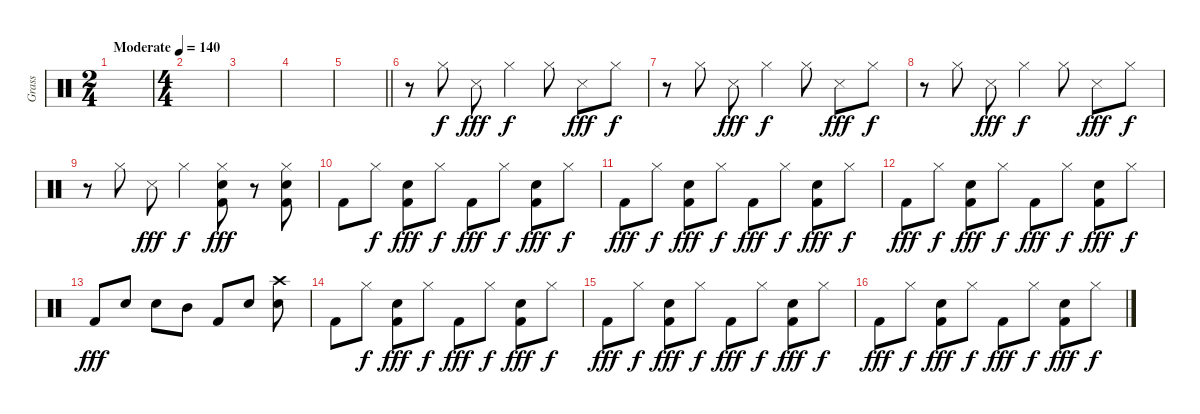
\track ("Grass" "Grass") {instrument percussion}
\staff {score}
\articulation defaults
\ts (2 4)
\tempo (140 "Moderate")
\clef neutral
\ks c
|
\ts (4 4)
|
|
|
\barLineRight lightlight
|
r.8 "Hi-Hat (closed)".8 "Snare (side stick) 3".8{dy fff} "Hi-Hat (closed)".4{dy f} "Hi-Hat (closed)".8 "Snare (side stick) 3".8{dy fff} "Hi-Hat (closed)".8{dy f} |
r.8 "Hi-Hat (closed)".8 "Snare (side stick) 3".8{dy fff} "Hi-Hat (closed)".4{dy f} "Hi-Hat (closed)".8 "Snare (side stick) 3".8{dy fff} "Hi-Hat (closed)".8{dy f} |
r.8 "Hi-Hat (closed)".8 "Snare (side stick) 3".8{dy fff} "Hi-Hat (closed)".4{dy f} "Hi-Hat (closed)".8 "Snare (side stick) 3".8{dy fff} "Hi-Hat (closed)".8{dy f} |
r.8 "Hi-Hat (closed)".8 "Snare (side stick) 3".8{dy fff} "Hi-Hat (closed)".4{dy f} ("Kick (hit) 2" "Electric Snare (hit)" "Hi-Hat (closed)").8{dy fff} r.8 ("Kick (hit) 2" "Electric Snare (hit)" "Hi-Hat (closed)").8 |
"Kick (hit) 2".8 "Hi-Hat (closed)".8{dy f} ("Kick (hit) 2" "Electric Snare (hit)").8{dy fff} "Hi-Hat (closed)".8{dy f} "Kick (hit) 2".8{dy fff} "Hi-Hat (closed)".8{dy f} ("Kick (hit) 2" "Electric Snare (hit)").8{dy fff} "Hi-Hat (closed)".8{dy f} |
"Kick (hit) 2".8{dy fff} "Hi-Hat (closed)".8{dy f} ("Kick (hit) 2" "Electric Snare (hit)").8{dy fff} "Hi-Hat (closed)".8{dy f} "Kick (hit) 2".8{dy fff} "Hi-Hat (closed)".8{dy f} ("Kick (hit) 2" "Electric Snare (hit)").8{dy fff} "Hi-Hat (closed)".8{dy f} |
"Kick (hit) 2".8{dy fff} "Hi-Hat (closed)".8{dy f} ("Kick (hit) 2" "Electric Snare (hit)").8{dy fff} "Hi-Hat (closed)".8{dy f} "Kick (hit) 2".8{dy fff} "Hi-Hat (closed)".8{dy f} ("Kick (hit) 2" "Electric Snare (hit)").8{dy fff} "Hi-Hat (closed)".8{dy f} |
"Kick (hit) 2".8{dy fff} "Electric Snare (hit)".8 "Electric Snare (hit)".8 "Mid Tom (hit)".8 "Kick (hit) 2".8 "Electric Snare (hit)".8 ("Electric Snare (hit)" "Crash high (hit)").8 |
"Kick (hit) 2".8 "Hi-Hat (closed)".8{dy f} ("Kick (hit) 2" "Electric Snare (hit)").8{dy fff} "Hi-Hat (closed)".8{dy f} "Kick (hit) 2".8{dy fff} "Hi-Hat (closed)".8{dy f} ("Kick (hit) 2" "Electric Snare (hit)").8{dy fff} "Hi-Hat (closed)".8{dy f} |
"Kick (hit) 2".8{dy fff} "Hi-Hat (closed)".8{dy f} ("Kick (hit) 2" "Electric Snare (hit)").8{dy fff} "Hi-Hat (closed)".8{dy f} "Kick (hit) 2".8{dy fff} "Hi-Hat (closed)".8{dy f} ("Kick (hit) 2" "Electric Snare (hit)").8{dy fff} "Hi-Hat (closed)".8{dy f} |
"Kick (hit) 2".8{dy fff} "Hi-Hat (closed)".8{dy f} ("Kick (hit) 2" "Electric Snare (hit)").8{dy fff} "Hi-Hat (closed)".8{dy f} "Kick (hit) 2".8{dy fff} "Hi-Hat (closed)".8{dy f} ("Kick (hit) 2" "Electric Snare (hit)").8{dy fff} "Hi-Hat (closed)".8{dy f}
